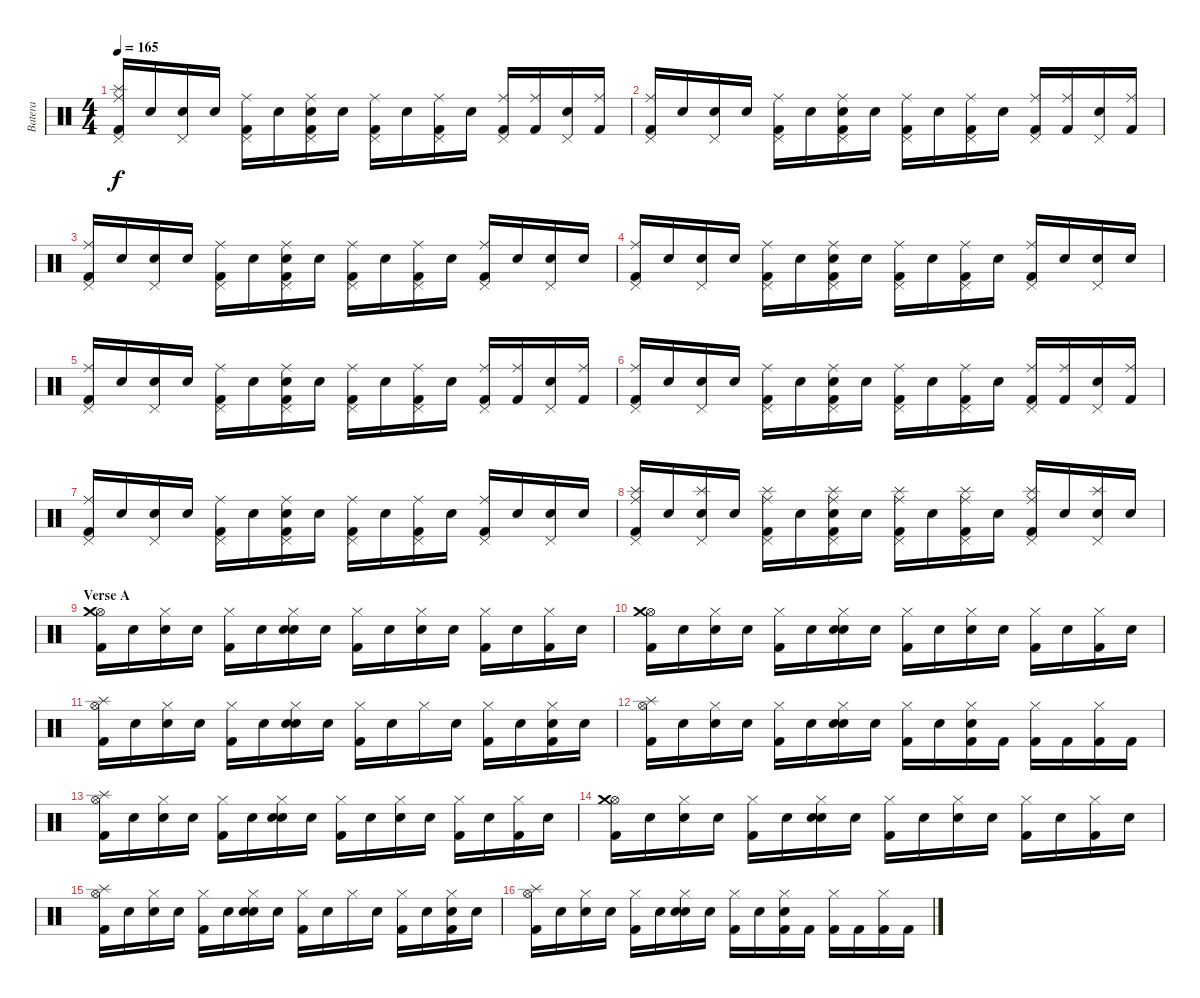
\track ("Batera" "Batera") {instrument percussion}
\staff {score}
\articulation defaults
\ts (4 4)
\tempo 165
\clef neutral
\ks c
("Kick (hit) 2" "Pedal Hi-Hat (hit)" "Splash (hit)" "Ride (middle)").16{dy f} "Snare (hit)".16 ("Snare (hit)" "Pedal Hi-Hat (hit)").16 "Snare (hit)".16 ("Kick (hit) 2" "Pedal Hi-Hat (hit)" "Ride (middle)").16 "Snare (hit)".16 ("Kick (hit) 2" "Pedal Hi-Hat (hit)" "Snare (hit) 2" "Ride (middle)").16 "Snare (hit)".16 ("Kick (hit) 2" "Pedal Hi-Hat (hit)" "Ride (middle)").16 "Snare (hit)".16 ("Kick (hit) 2" "Pedal Hi-Hat (hit)" "Ride (middle)").16 "Snare (hit)".16 ("Kick (hit) 2" "Pedal Hi-Hat (hit)" "Ride (middle)").16 ("Kick (hit) 2" "Ride (middle)").16 ("Pedal Hi-Hat (hit)" "Snare (hit) 2").16 ("Kick (hit) 2" "Ride (middle)").16 |
("Kick (hit) 2" "Pedal Hi-Hat (hit)" "Ride (middle)").16 "Snare (hit)".16 ("Snare (hit)" "Pedal Hi-Hat (hit)").16 "Snare (hit)".16 ("Kick (hit) 2" "Pedal Hi-Hat (hit)" "Ride (middle)").16 "Snare (hit)".16 ("Kick (hit) 2" "Pedal Hi-Hat (hit)" "Snare (hit) 2" "Ride (middle)").16 "Snare (hit)".16 ("Kick (hit) 2" "Pedal Hi-Hat (hit)" "Ride (middle)").16 "Snare (hit)".16 ("Kick (hit) 2" "Pedal Hi-Hat (hit)" "Ride (middle)").16 "Snare (hit)".16 ("Kick (hit) 2" "Pedal Hi-Hat (hit)" "Ride (middle)").16 ("Kick (hit) 2" "Ride (middle)").16 ("Pedal Hi-Hat (hit)" "Snare (hit) 2").16 ("Kick (hit) 2" "Ride (middle)").16 |
("Kick (hit) 2" "Pedal Hi-Hat (hit)" "Ride (middle)").16 "Snare (hit)".16 ("Snare (hit)" "Pedal Hi-Hat (hit)").16 "Snare (hit)".16 ("Kick (hit) 2" "Pedal Hi-Hat (hit)" "Ride (middle)").16 "Snare (hit)".16 ("Kick (hit) 2" "Pedal Hi-Hat (hit)" "Snare (hit) 2" "Ride (middle)").16 "Snare (hit)".16 ("Kick (hit) 2" "Pedal Hi-Hat (hit)" "Ride (middle)").16 "Snare (hit)".16 ("Kick (hit) 2" "Pedal Hi-Hat (hit)" "Ride (middle)").16 "Snare (hit)".16 ("Kick (hit) 2" "Pedal Hi-Hat (hit)" "Ride (middle)").16 "Snare (hit)".16 ("Pedal Hi-Hat (hit)" "Snare (hit) 2").16 "Snare (hit)".16 |
("Kick (hit) 2" "Pedal Hi-Hat (hit)" "Ride (middle)").16 "Snare (hit)".16 ("Snare (hit)" "Pedal Hi-Hat (hit)").16 "Snare (hit)".16 ("Kick (hit) 2" "Pedal Hi-Hat (hit)" "Ride (middle)").16 "Snare (hit)".16 ("Kick (hit) 2" "Pedal Hi-Hat (hit)" "Snare (hit) 2" "Ride (middle)").16 "Snare (hit)".16 ("Kick (hit) 2" "Pedal Hi-Hat (hit)" "Ride (middle)").16 "Snare (hit)".16 ("Kick (hit) 2" "Pedal Hi-Hat (hit)" "Ride (middle)").16 "Snare (hit)".16 ("Kick (hit) 2" "Pedal Hi-Hat (hit)" "Ride (middle)").16 "Snare (hit)".16 ("Pedal Hi-Hat (hit)" "Snare (hit) 2").16 "Snare (hit)".16 |
("Kick (hit) 2" "Pedal Hi-Hat (hit)" "Ride (middle)").16 "Snare (hit)".16 ("Snare (hit)" "Pedal Hi-Hat (hit)").16 "Snare (hit)".16 ("Kick (hit) 2" "Pedal Hi-Hat (hit)" "Ride (middle)").16 "Snare (hit)".16 ("Kick (hit) 2" "Pedal Hi-Hat (hit)" "Snare (hit) 2" "Ride (middle)").16 "Snare (hit)".16 ("Kick (hit) 2" "Pedal Hi-Hat (hit)" "Ride (middle)").16 "Snare (hit)".16 ("Kick (hit) 2" "Pedal Hi-Hat (hit)" "Ride (middle)").16 "Snare (hit)".16 ("Kick (hit) 2" "Pedal Hi-Hat (hit)" "Ride (middle)").16 ("Kick (hit) 2" "Ride (middle)").16 ("Pedal Hi-Hat (hit)" "Snare (hit) 2").16 ("Kick (hit) 2" "Ride (middle)").16 |
("Kick (hit) 2" "Pedal Hi-Hat (hit)" "Ride (middle)").16 "Snare (hit)".16 ("Snare (hit)" "Pedal Hi-Hat (hit)").16 "Snare (hit)".16 ("Kick (hit) 2" "Pedal Hi-Hat (hit)" "Ride (middle)").16 "Snare (hit)".16 ("Kick (hit) 2" "Pedal Hi-Hat (hit)" "Snare (hit) 2" "Ride (middle)").16 "Snare (hit)".16 ("Kick (hit) 2" "Pedal Hi-Hat (hit)" "Ride (middle)").16 "Snare (hit)".16 ("Kick (hit) 2" "Pedal Hi-Hat (hit)" "Ride (middle)").16 "Snare (hit)".16 ("Kick (hit) 2" "Pedal Hi-Hat (hit)" "Ride (middle)").16 ("Kick (hit) 2" "Ride (middle)").16 ("Pedal Hi-Hat (hit)" "Snare (hit) 2").16 ("Kick (hit) 2" "Ride (middle)").16 |
("Kick (hit) 2" "Pedal Hi-Hat (hit)" "Ride (middle)").16 "Snare (hit)".16 ("Snare (hit)" "Pedal Hi-Hat (hit)").16 "Snare (hit)".16 ("Kick (hit) 2" "Pedal Hi-Hat (hit)" "Ride (middle)").16 "Snare (hit)".16 ("Kick (hit) 2" "Pedal Hi-Hat (hit)" "Snare (hit) 2" "Ride (middle)").16 "Snare (hit)".16 ("Kick (hit) 2" "Pedal Hi-Hat (hit)" "Ride (middle)").16 "Snare (hit)".16 ("Kick (hit) 2" "Pedal Hi-Hat (hit)" "Ride (middle)").16 "Snare (hit)".16 ("Kick (hit) 2" "Pedal Hi-Hat (hit)" "Ride (middle)").16 "Snare (hit)".16 ("Pedal Hi-Hat (hit)" "Snare (hit) 2").16 "Snare (hit)".16 |
("Kick (hit) 2" "Pedal Hi-Hat (hit)" "Splash (hit)" "Ride (middle)").16 "Snare (hit)".16 ("Snare (hit)" "Pedal Hi-Hat (hit)" "Splash (hit)").16 "Snare (hit)".16 ("Kick (hit) 2" "Pedal Hi-Hat (hit)" "Splash (hit)" "Ride (middle)").16 "Snare (hit)".16 ("Kick (hit) 2" "Pedal Hi-Hat (hit)" "Snare (hit) 2" "Splash (hit)" "Ride (middle)").16 "Snare (hit)".16 ("Kick (hit) 2" "Pedal Hi-Hat (hit)" "Splash (hit)" "Ride (middle)").16 "Snare (hit)".16 ("Kick (hit) 2" "Pedal Hi-Hat (hit)" "Splash (hit)" "Ride (middle)").16 "Snare (hit)".16 ("Kick (hit) 2" "Pedal Hi-Hat (hit)" "Splash (hit)" "Ride (middle)").16 "Snare (hit)".16 ("Pedal Hi-Hat (hit)" "Snare (hit) 2" "Splash (hit)").16 "Snare (hit)".16 |
\section ("" "Verse A")
("Kick (hit) 2" "Hi-Hat (open)" "Crash medium (hit)").16 "Snare (hit)".16 ("Snare (hit)" "Hi-Hat (closed)").16 "Snare (hit)".16 ("Kick (hit) 2" "Hi-Hat (closed)").16 "Snare (hit)".16 ("Snare (hit)" "Hi-Hat (closed)" "Snare (hit) 2").16 "Snare (hit)".16 ("Kick (hit) 2" "Hi-Hat (closed)").16 "Snare (hit)".16 ("Hi-Hat (closed)" "Snare (hit) 2").16 "Snare (hit)".16 ("Kick (hit) 2" "Hi-Hat (closed)").16 "Snare (hit)".16 ("Kick (hit) 2" "Hi-Hat (closed)").16 "Snare (hit)".16 |
("Kick (hit) 2" "Hi-Hat (open)" "Crash medium (hit)").16 "Snare (hit)".16 ("Snare (hit)" "Hi-Hat (closed)").16 "Snare (hit)".16 ("Kick (hit) 2" "Hi-Hat (closed)").16 "Snare (hit)".16 ("Snare (hit)" "Hi-Hat (closed)" "Snare (hit) 2").16 "Snare (hit)".16 ("Kick (hit) 2" "Hi-Hat (closed)").16 "Snare (hit)".16 ("Hi-Hat (closed)" "Snare (hit) 2").16 "Snare (hit)".16 ("Kick (hit) 2" "Hi-Hat (closed)").16 "Snare (hit)".16 ("Kick (hit) 2" "Hi-Hat (closed)").16 "Snare (hit)".16 |
("Kick (hit) 2" "Hi-Hat (open)" "Splash (hit)").16 "Snare (hit)".16 ("Snare (hit)" "Hi-Hat (closed)").16 "Snare (hit)".16 ("Kick (hit) 2" "Hi-Hat (closed)").16 "Snare (hit)".16 ("Snare (hit)" "Hi-Hat (closed)" "Snare (hit) 2").16 "Snare (hit)".16 ("Kick (hit) 2" "Hi-Hat (closed)").16 "Snare (hit)".16 "Hi-Hat (closed)".16 "Snare (hit)".16 ("Kick (hit) 2" "Hi-Hat (closed)").16 "Snare (hit)".16 ("Kick (hit) 2" "Hi-Hat (closed)" "Snare (hit) 2").16 "Snare (hit)".16 |
("Kick (hit) 2" "Hi-Hat (open)" "Splash (hit)").16 "Snare (hit)".16 ("Snare (hit)" "Hi-Hat (closed)").16 "Snare (hit)".16 ("Kick (hit) 2" "Hi-Hat (closed)").16 "Snare (hit)".16 ("Snare (hit)" "Hi-Hat (closed)" "Snare (hit) 2").16 "Snare (hit)".16 ("Kick (hit) 2" "Hi-Hat (closed)").16 "Snare (hit)".16 ("Kick (hit) 2" "Hi-Hat (closed)" "Snare (hit) 2").16 "Kick (hit) 2".16 ("Kick (hit) 2" "Hi-Hat (closed)").16 "Kick (hit) 2".16 ("Kick (hit) 2" "Hi-Hat (closed)").16 "Kick (hit) 2".16 |
("Kick (hit) 2" "Hi-Hat (open)" "Splash (hit)").16 "Snare (hit)".16 ("Snare (hit)" "Hi-Hat (closed)").16 "Snare (hit)".16 ("Kick (hit) 2" "Hi-Hat (closed)").16 "Snare (hit)".16 ("Snare (hit)" "Hi-Hat (closed)" "Snare (hit) 2").16 "Snare (hit)".16 ("Kick (hit) 2" "Hi-Hat (closed)").16 "Snare (hit)".16 ("Hi-Hat (closed)" "Snare (hit) 2").16 "Snare (hit)".16 ("Kick (hit) 2" "Hi-Hat (closed)").16 "Snare (hit)".16 ("Kick (hit) 2" "Hi-Hat (closed)").16 "Snare (hit)".16 |
("Kick (hit) 2" "Hi-Hat (open)" "Crash medium (hit)").16 "Snare (hit)".16 ("Snare (hit)" "Hi-Hat (closed)").16 "Snare (hit)".16 ("Kick (hit) 2" "Hi-Hat (closed)").16 "Snare (hit)".16 ("Snare (hit)" "Hi-Hat (closed)" "Snare (hit) 2").16 "Snare (hit)".16 ("Kick (hit) 2" "Hi-Hat (closed)").16 "Snare (hit)".16 ("Hi-Hat (closed)" "Snare (hit) 2").16 "Snare (hit)".16 ("Kick (hit) 2" "Hi-Hat (closed)").16 "Snare (hit)".16 ("Kick (hit) 2" "Hi-Hat (closed)").16 "Snare (hit)".16 |
("Kick (hit) 2" "Hi-Hat (open)" "Splash (hit)").16 "Snare (hit)".16 ("Snare (hit)" "Hi-Hat (closed)").16 "Snare (hit)".16 ("Kick (hit) 2" "Hi-Hat (closed)").16 "Snare (hit)".16 ("Snare (hit)" "Hi-Hat (closed)" "Snare (hit) 2").16 "Snare (hit)".16 ("Kick (hit) 2" "Hi-Hat (closed)").16 "Snare (hit)".16 "Hi-Hat (closed)".16 "Snare (hit)".16 ("Kick (hit) 2" "Hi-Hat (closed)").16 "Snare (hit)".16 ("Kick (hit) 2" "Hi-Hat (closed)" "Snare (hit) 2").16 "Snare (hit)".16 |
("Kick (hit) 2" "Hi-Hat (open)" "Splash (hit)").16 "Snare (hit)".16 ("Snare (hit)" "Hi-Hat (closed)").16 "Snare (hit)".16 ("Kick (hit) 2" "Hi-Hat (closed)").16 "Snare (hit)".16 ("Snare (hit)" "Hi-Hat (closed)" "Snare (hit) 2").16 "Snare (hit)".16 ("Kick (hit) 2" "Hi-Hat (closed)").16 "Snare (hit)".16 ("Kick (hit) 2" "Hi-Hat (closed)" "Snare (hit) 2").16 "Kick (hit) 2".16 ("Kick (hit) 2" "Hi-Hat (closed)").16 "Kick (hit) 2".16 ("Kick (hit) 2" "Hi-Hat (closed)").16 "Kick (hit) 2".16
